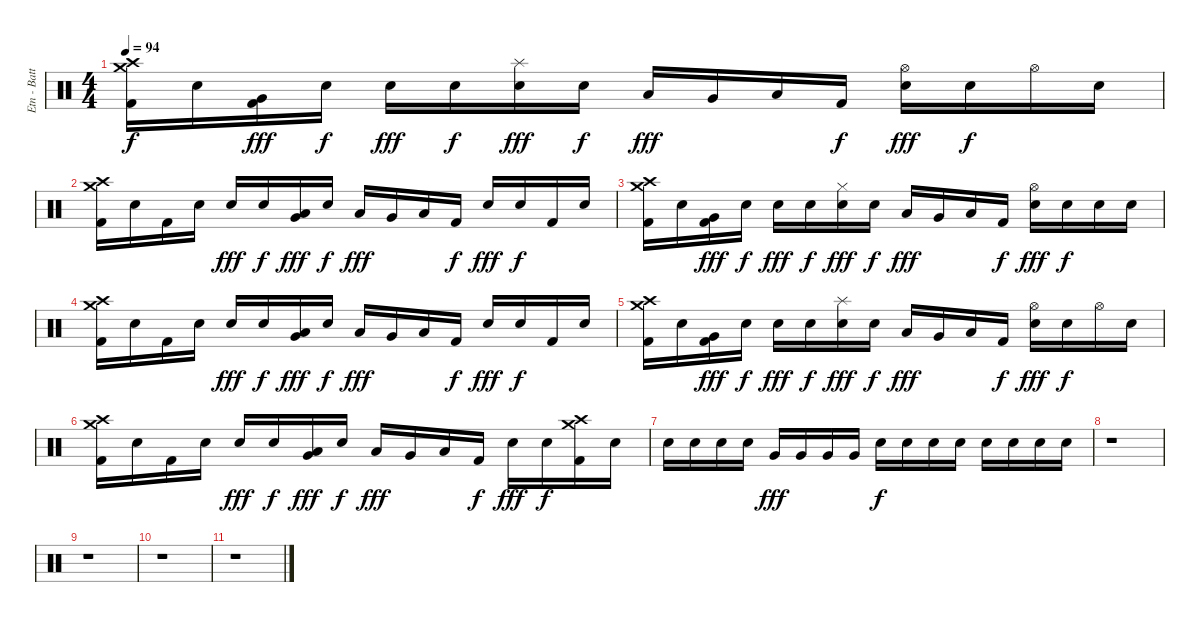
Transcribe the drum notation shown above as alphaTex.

\track ("Etn - Batterie" "Etn - Batt") {instrument percussion}
\staff {score}
\articulation defaults
\ts (4 4)
\tempo 94
\clef neutral
\ks c
("Crash medium (hit)" "Crash high (hit)" "Kick (hit) 2").16{dy f} "Snare (hit)".16 ("Very Low Tom (hit)" "Kick (hit) 2").16{dy fff} "Snare (hit)".16{dy f} "Electric Snare (hit)".16{dy fff} "Snare (hit)".16{dy f} ("Splash (hit)" "Electric Snare (hit)").16{dy fff} "Snare (hit)".16{dy f} "Low Tom (hit)".16{dy fff} "Very Low Tom (hit)".16 "Low Floor Tom (hit)".16 "Kick (hit) 2".16{dy f} ("Hi-Hat (open)" "Electric Snare (hit)").16{dy fff} "Snare (hit)".16{dy f} "Hi-Hat (open)".16 "Snare (hit)".16 |
("Crash medium (hit)" "Crash high (hit)" "Kick (hit) 2").16 "Snare (hit)".16 "Kick (hit) 2".16 "Snare (hit)".16 "Electric Snare (hit)".16{dy fff} "Snare (hit)".16{dy f} ("Low Tom (hit)" "Very Low Tom (hit)").16{dy fff} "Snare (hit)".16{dy f} "Low Tom (hit)".16{dy fff} "Very Low Tom (hit)".16 "Low Floor Tom (hit)".16 "Kick (hit) 2".16{dy f} "Electric Snare (hit)".16{dy fff} "Snare (hit)".16{dy f} "Kick (hit) 2".16 "Snare (hit)".16 |
("Crash medium (hit)" "Crash high (hit)" "Kick (hit) 2").16 "Snare (hit)".16 ("Very Low Tom (hit)" "Kick (hit) 2").16{dy fff} "Snare (hit)".16{dy f} "Electric Snare (hit)".16{dy fff} "Snare (hit)".16{dy f} ("Hi-Hat (closed)" "Electric Snare (hit)").16{dy fff} "Snare (hit)".16{dy f} "Low Tom (hit)".16{dy fff} "Very Low Tom (hit)".16 "Low Floor Tom (hit)".16 "Kick (hit) 2".16{dy f} ("Hi-Hat (open)" "Electric Snare (hit)").16{dy fff} "Snare (hit)".16{dy f} "Snare (hit)".16 "Snare (hit)".16 |
("Crash medium (hit)" "Crash high (hit)" "Kick (hit) 2").16 "Snare (hit)".16 "Kick (hit) 2".16 "Snare (hit)".16 "Electric Snare (hit)".16{dy fff} "Snare (hit)".16{dy f} ("Low Tom (hit)" "Very Low Tom (hit)").16{dy fff} "Snare (hit)".16{dy f} "Low Tom (hit)".16{dy fff} "Very Low Tom (hit)".16 "Low Floor Tom (hit)".16 "Kick (hit) 2".16{dy f} "Electric Snare (hit)".16{dy fff} "Snare (hit)".16{dy f} "Kick (hit) 2".16 "Snare (hit)".16 |
("Crash medium (hit)" "Crash high (hit)" "Kick (hit) 2").16 "Snare (hit)".16 ("Very Low Tom (hit)" "Kick (hit) 2").16{dy fff} "Snare (hit)".16{dy f} "Electric Snare (hit)".16{dy fff} "Snare (hit)".16{dy f} ("Splash (hit)" "Electric Snare (hit)").16{dy fff} "Snare (hit)".16{dy f} "Low Tom (hit)".16{dy fff} "Very Low Tom (hit)".16 "Low Floor Tom (hit)".16 "Kick (hit) 2".16{dy f} ("Hi-Hat (open)" "Electric Snare (hit)").16{dy fff} "Snare (hit)".16{dy f} "Hi-Hat (open)".16 "Snare (hit)".16 |
("Crash medium (hit)" "Crash high (hit)" "Kick (hit) 2").16 "Snare (hit)".16 "Kick (hit) 2".16 "Snare (hit)".16 "Electric Snare (hit)".16{dy fff} "Snare (hit)".16{dy f} ("Low Tom (hit)" "Very Low Tom (hit)").16{dy fff} "Snare (hit)".16{dy f} "Low Tom (hit)".16{dy fff} "Very Low Tom (hit)".16 "Low Floor Tom (hit)".16 "Kick (hit) 2".16{dy f} "Electric Snare (hit)".16{dy fff} "Snare (hit)".16{dy f} ("Crash medium (hit)" "Crash high (hit)" "Kick (hit) 2").16 "Snare (hit)".16 |
"Snare (hit)".16 "Snare (hit)".16 "Snare (hit)".16 "Snare (hit)".16 "Very Low Tom (hit)".16{dy fff} "Very Low Tom (hit)".16 "Very Low Tom (hit)".16 "Very Low Tom (hit)".16 "Snare (hit)".16{dy f} "Snare (hit)".16 "Snare (hit)".16 "Snare (hit)".16 "Snare (hit)".16 "Snare (hit)".16 "Snare (hit)".16 "Snare (hit)".16 |
r.1 |
r.1 |
r.1 |
r.1
